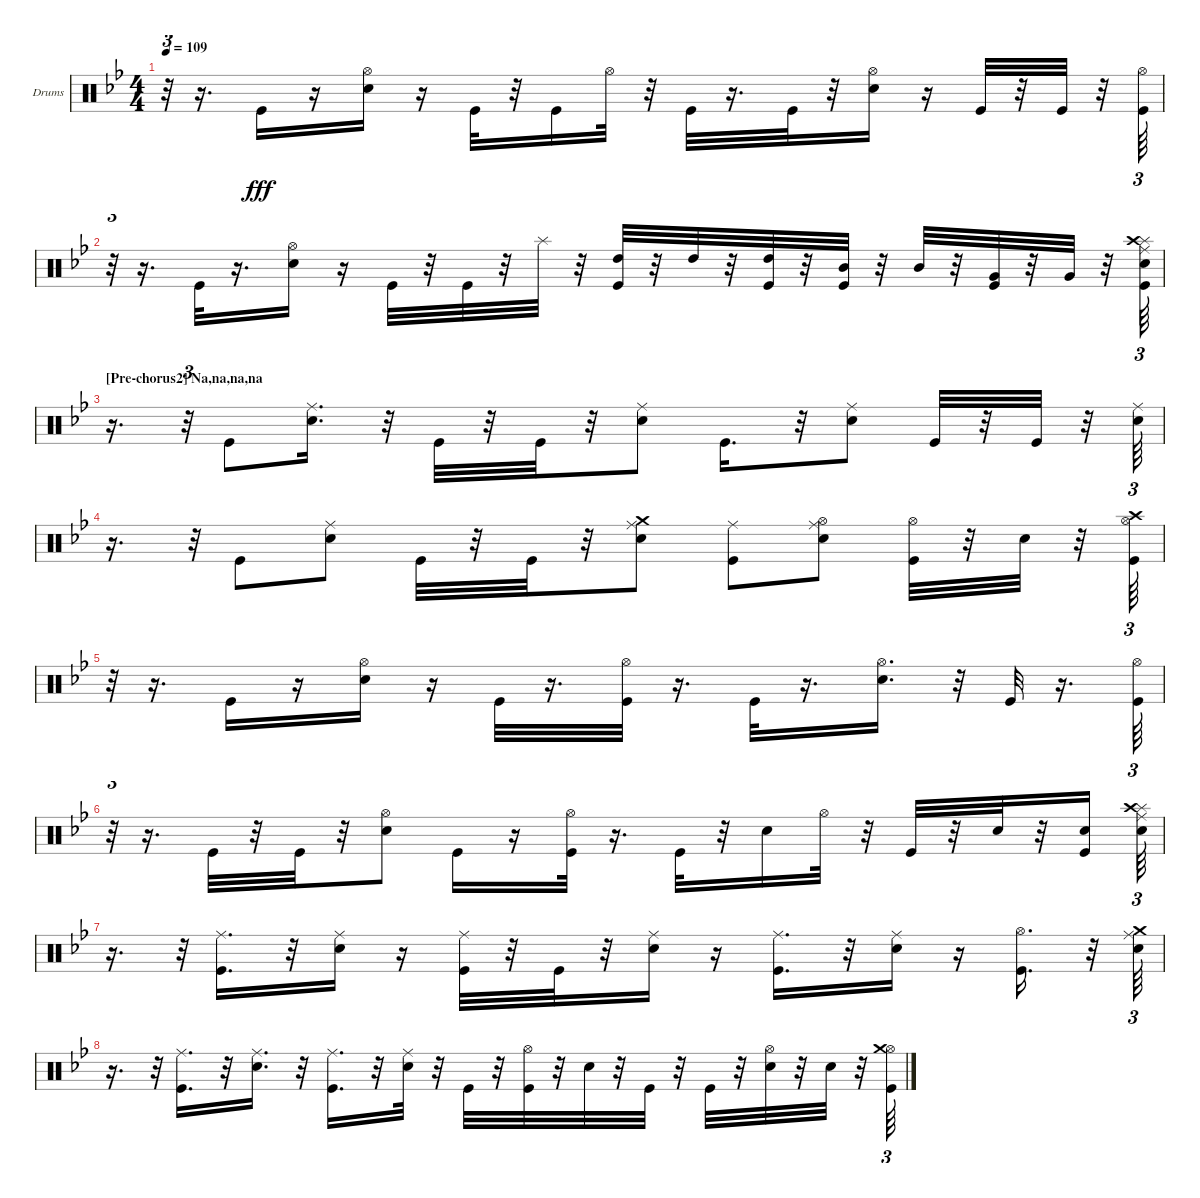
\bracketExtendMode groupsimilarinstruments
\firstSystemTrackNameOrientation horizontal
\otherSystemsTrackNameOrientation horizontal
\track ("Drumkit" "Drums") {instrument percussion}
\staff {score}
\articulation defaults
\ts (4 4)
\tempo 109
\clef neutral
\ks gminor
r.32{tu (3 2) dy fff} r.16{d} "Kick (hit)".16 r.16 ("Snare (hit) 2" "Hi-Hat (open)").16 r.16 "Kick (hit)".32 r.32 "Kick (hit)".16 "Hi-Hat (open)".32 r.32 "Kick (hit)".32 r.16{d} "Kick (hit)".32 r.32 ("Snare (hit) 2" "Hi-Hat (open)").16 r.16 "Kick (hit)".32 r.32 "Kick (hit)".32 r.32 ("Kick (hit)" "Hi-Hat (open)").64{tu (3 2)} |
r.32{tu (3 2)} r.16{d} "Kick (hit)".32 r.16{d} ("Snare (hit) 2" "Hi-Hat (open)").16 r.16 "Kick (hit)".32 r.32 "Kick (hit)".32 r.32 "Splash (hit)".32 r.32 ("Kick (hit)" "High Tom (hit)").32 r.32 "High Tom (hit)".32 r.32 ("Kick (hit)" "High Tom (hit)").32 r.32 ("Kick (hit)" "Mid Tom (hit)").32 r.32 "Mid Tom (hit)".32 r.32 ("Kick (hit)" "Very Low Tom (hit)").32 r.32 "Very Low Tom (hit)".32 r.32 ("Kick (hit)" "Snare (hit) 2" "Ride (middle)" "Splash (hit)" "Crash high (hit)").64{tu (3 2)} |
\section ("" "[Pre-chorus2] Na,na,na,na")
r.16{d} r.32{tu (3 2)} "Kick (hit)".8 ("Snare (hit) 2" "Ride (middle)").16{d} r.32 "Kick (hit)".32 r.32 "Kick (hit)".32 r.32 ("Snare (hit) 2" "Ride (middle)").8 "Kick (hit)".16{d} r.32 ("Snare (hit) 2" "Ride (middle)").8 "Kick (hit)".32 r.32 "Kick (hit)".32 r.32 ("Snare (hit) 2" "Ride (middle)").64{tu (3 2)} |
r.16{d} r.32{tu (3 2)} "Kick (hit)".8 ("Snare (hit) 2" "Ride (middle)").8 "Kick (hit)".32 r.32 "Kick (hit)".32 r.32 ("Snare (hit) 2" "Crash medium (hit)" "Ride (middle)").8 ("Kick (hit)" "Ride (middle)").8 ("Snare (hit) 2" "Hi-Hat (open)" "Ride (middle)").8 ("Kick (hit)" "Hi-Hat (open)").32 r.32 "Snare (hit) 2".32 r.32 ("Kick (hit)" "Hi-Hat (open)" "Crash high (hit)").64{tu (3 2)} |
r.32{tu (3 2)} r.16{d} "Kick (hit)".16 r.16 ("Snare (hit) 2" "Hi-Hat (open)").16 r.16 "Kick (hit)".32 r.16{d} ("Kick (hit)" "Hi-Hat (open)").32 r.16{d} "Kick (hit)".32 r.16{d} ("Snare (hit) 2" "Hi-Hat (open)").16{d} r.32 "Kick (hit)".32 r.16{d} ("Kick (hit)" "Hi-Hat (open)").64{tu (3 2)} |
r.32{tu (3 2)} r.16{d} "Kick (hit)".32 r.32 "Kick (hit)".32 r.32 ("Snare (hit) 2" "Hi-Hat (open)").8 "Kick (hit)".16 r.16 ("Kick (hit)" "Hi-Hat (open)").32 r.16{d} "Kick (hit)".32 r.32 "Snare (hit) 2".16 "Hi-Hat (open)".32 r.32 "Kick (hit)".32 r.32 "Snare (hit) 2".32 r.32 ("Kick (hit)" "Snare (hit) 2").16 ("Snare (hit) 2" "Ride (middle)" "Splash (hit)" "Crash high (hit)").64{tu (3 2)} |
r.16{d} r.32{tu (3 2)} ("Kick (hit)" "Ride (middle)").16{d} r.32 ("Snare (hit) 2" "Ride (middle)").16 r.16 ("Kick (hit)" "Ride (middle)").32 r.32 "Kick (hit)".32 r.32 ("Snare (hit) 2" "Ride (middle)").16 r.16 ("Kick (hit)" "Ride (middle)").16{d} r.32 ("Snare (hit) 2" "Ride (middle)").16 r.16 ("Kick (hit)" "Hi-Hat (open)").16{d} r.32 ("Snare (hit) 2" "Crash medium (hit)" "Ride (middle)").64{tu (3 2)} |
r.16{d} r.32{tu (3 2)} ("Kick (hit)" "Ride (middle)").16{d} r.32 ("Snare (hit) 2" "Ride (middle)").16{d} r.32 ("Kick (hit)" "Ride (middle)").16{d} r.32 ("Snare (hit) 2" "Ride (middle)").32 r.32 "Kick (hit)".32 r.32 ("Kick (hit)" "Hi-Hat (open)").32 r.32 "Snare (hit) 2".32 r.32 "Kick (hit)".32 r.32 "Kick (hit)".32 r.32 ("Snare (hit) 2" "Hi-Hat (open)").32 r.32 "Snare (hit) 2".32 r.32 ("Kick (hit)" "Hi-Hat (open)" "Crash medium (hit)").64{tu (3 2)}
